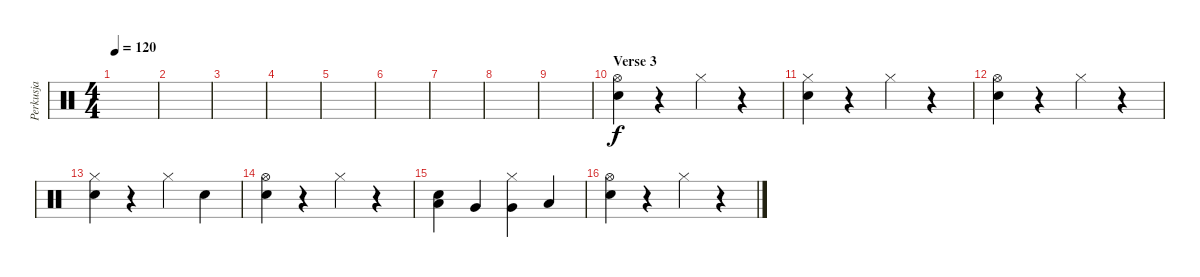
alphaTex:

\track ("Perkusja" "Perkusja") {instrument percussion}
\staff {score}
\articulation defaults
\ts (4 4)
\tempo 120
\clef neutral
\ks c
|
|
|
|
|
|
|
|
|
\section ("" "Verse 3")
("Snare (hit) 2" "Hi-Hat (open)").4 r.4 "Hi-Hat (closed)".4 r.4 |
("Snare (hit) 2" "Hi-Hat (closed)").4 r.4 "Hi-Hat (closed)".4 r.4 |
("Snare (hit) 2" "Hi-Hat (open)").4 r.4 "Hi-Hat (closed)".4 r.4 |
("Snare (hit) 2" "Hi-Hat (closed)").4 r.4 "Hi-Hat (closed)".4 "Snare (hit) 2".4 |
("Snare (hit) 2" "Hi-Hat (open)").4 r.4 "Hi-Hat (closed)".4 r.4 |
("Snare (hit) 2" "Low Floor Tom (hit)").4 "Very Low Tom (hit)".4 ("Hi-Hat (closed)" "Very Low Tom (hit)").4 "Low Floor Tom (hit)".4 |
("Snare (hit) 2" "Hi-Hat (open)").4 r.4 "Hi-Hat (closed)".4 r.4
